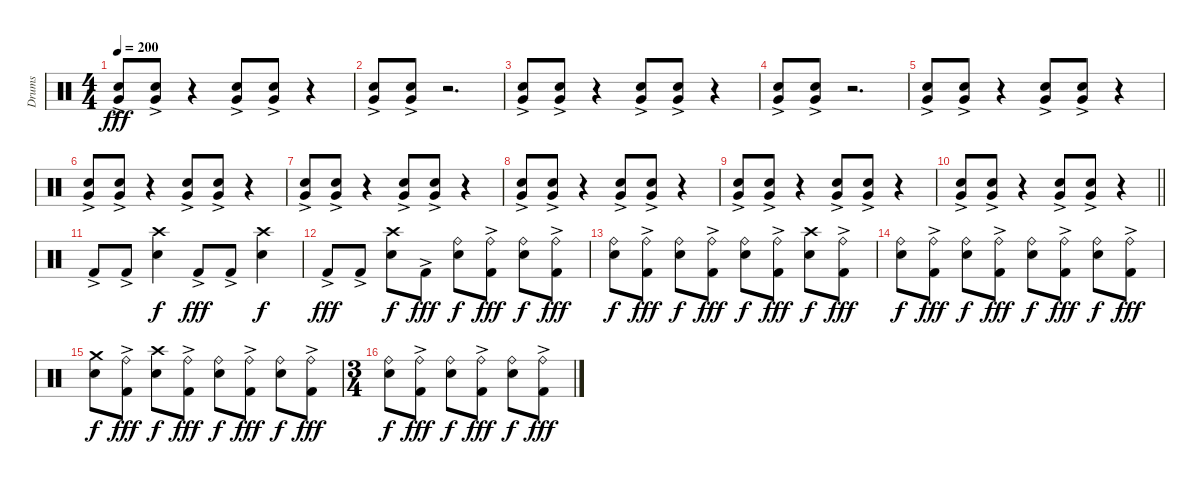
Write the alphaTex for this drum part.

\track ("Drums" "Drums") {instrument percussion}
\staff {score}
\articulation defaults
\ts (4 4)
\tempo 200
\clef neutral
\ks c
("Snare (hit) 2" "Very Low Tom (hit)"{ac}).8{dy fff} ("Snare (hit) 2" "Very Low Tom (hit)"{ac}).8 r.4 ("Snare (hit) 2" "Very Low Tom (hit)"{ac}).8 ("Snare (hit) 2" "Very Low Tom (hit)"{ac}).8 r.4 |
("Snare (hit) 2" "Very Low Tom (hit)"{ac}).8 ("Snare (hit) 2" "Very Low Tom (hit)"{ac}).8 r.2{d} |
("Snare (hit) 2" "Very Low Tom (hit)"{ac}).8 ("Snare (hit) 2" "Very Low Tom (hit)"{ac}).8 r.4 ("Snare (hit) 2" "Very Low Tom (hit)"{ac}).8 ("Snare (hit) 2" "Very Low Tom (hit)"{ac}).8 r.4 |
("Snare (hit) 2" "Very Low Tom (hit)"{ac}).8 ("Snare (hit) 2" "Very Low Tom (hit)"{ac}).8 r.2{d} |
("Snare (hit) 2" "Very Low Tom (hit)"{ac}).8 ("Snare (hit) 2" "Very Low Tom (hit)"{ac}).8 r.4 ("Snare (hit) 2" "Very Low Tom (hit)"{ac}).8 ("Snare (hit) 2" "Very Low Tom (hit)"{ac}).8 r.4 |
("Snare (hit) 2" "Very Low Tom (hit)"{ac}).8 ("Snare (hit) 2" "Very Low Tom (hit)"{ac}).8 r.4 ("Snare (hit) 2" "Very Low Tom (hit)"{ac}).8 ("Snare (hit) 2" "Very Low Tom (hit)"{ac}).8 r.4 |
("Snare (hit) 2" "Very Low Tom (hit)"{ac}).8 ("Snare (hit) 2" "Very Low Tom (hit)"{ac}).8 r.4 ("Snare (hit) 2" "Very Low Tom (hit)"{ac}).8 ("Snare (hit) 2" "Very Low Tom (hit)"{ac}).8 r.4 |
("Snare (hit) 2" "Very Low Tom (hit)"{ac}).8 ("Snare (hit) 2" "Very Low Tom (hit)"{ac}).8 r.4 ("Snare (hit) 2" "Very Low Tom (hit)"{ac}).8 ("Snare (hit) 2" "Very Low Tom (hit)"{ac}).8 r.4 |
("Snare (hit) 2" "Very Low Tom (hit)"{ac}).8 ("Snare (hit) 2" "Very Low Tom (hit)"{ac}).8 r.4 ("Snare (hit) 2" "Very Low Tom (hit)"{ac}).8 ("Snare (hit) 2" "Very Low Tom (hit)"{ac}).8 r.4 |
\barLineRight lightlight
("Snare (hit) 2" "Very Low Tom (hit)"{ac}).8 ("Snare (hit) 2" "Very Low Tom (hit)"{ac}).8 r.4 ("Snare (hit) 2" "Very Low Tom (hit)"{ac}).8 ("Snare (hit) 2" "Very Low Tom (hit)"{ac}).8 r.4 |
"Kick (hit) 2"{ac}.8 "Kick (hit) 2"{ac}.8 ("Crash high (hit)" "Snare (hit) 2").4{dy f} "Kick (hit) 2"{ac}.8{dy fff} "Kick (hit) 2"{ac}.8 ("Crash high (hit)" "Snare (hit) 2").4{dy f} |
"Kick (hit) 2"{ac}.8{dy fff} "Kick (hit) 2"{ac}.8 ("Crash high (hit)" "Snare (hit) 2").8{dy f} "Kick (hit) 2"{ac}.8{dy fff} ("Ride (bell)" "Snare (hit) 2").8{dy f} ("Ride (bell)" "Kick (hit) 2"{ac}).8{dy fff} ("Ride (bell)" "Snare (hit) 2").8{dy f} ("Ride (bell)" "Kick (hit) 2"{ac}).8{dy fff} |
("Ride (bell)" "Snare (hit) 2").8{dy f} ("Ride (bell)" "Kick (hit) 2"{ac}).8{dy fff} ("Ride (bell)" "Snare (hit) 2").8{dy f} ("Ride (bell)" "Kick (hit) 2"{ac}).8{dy fff} ("Ride (bell)" "Snare (hit) 2").8{dy f} ("Ride (bell)" "Kick (hit) 2"{ac}).8{dy fff} ("Crash high (hit)" "Snare (hit) 2").8{dy f} ("Ride (bell)" "Kick (hit) 2"{ac}).8{dy fff} |
("Ride (bell)" "Snare (hit) 2").8{dy f} ("Ride (bell)" "Kick (hit) 2"{ac}).8{dy fff} ("Ride (bell)" "Snare (hit) 2").8{dy f} ("Ride (bell)" "Kick (hit) 2"{ac}).8{dy fff} ("Ride (bell)" "Snare (hit) 2").8{dy f} ("Ride (bell)" "Kick (hit) 2"{ac}).8{dy fff} ("Ride (bell)" "Snare (hit) 2").8{dy f} ("Ride (bell)" "Kick (hit) 2"{ac}).8{dy fff} |
("Crash medium (hit)" "Snare (hit) 2").8{dy f} ("Ride (bell)" "Kick (hit) 2"{ac}).8{dy fff} ("Crash high (hit)" "Snare (hit) 2").8{dy f} ("Ride (bell)" "Kick (hit) 2"{ac}).8{dy fff} ("Ride (bell)" "Snare (hit) 2").8{dy f} ("Ride (bell)" "Kick (hit) 2"{ac}).8{dy fff} ("Ride (bell)" "Snare (hit) 2").8{dy f} ("Ride (bell)" "Kick (hit) 2"{ac}).8{dy fff} |
\ts (3 4)
("Ride (bell)" "Snare (hit) 2").8{dy f} ("Ride (bell)" "Kick (hit) 2"{ac}).8{dy fff} ("Ride (bell)" "Snare (hit) 2").8{dy f} ("Ride (bell)" "Kick (hit) 2"{ac}).8{dy fff} ("Ride (bell)" "Snare (hit) 2").8{dy f} ("Ride (bell)" "Kick (hit) 2"{ac}).8{dy fff}
